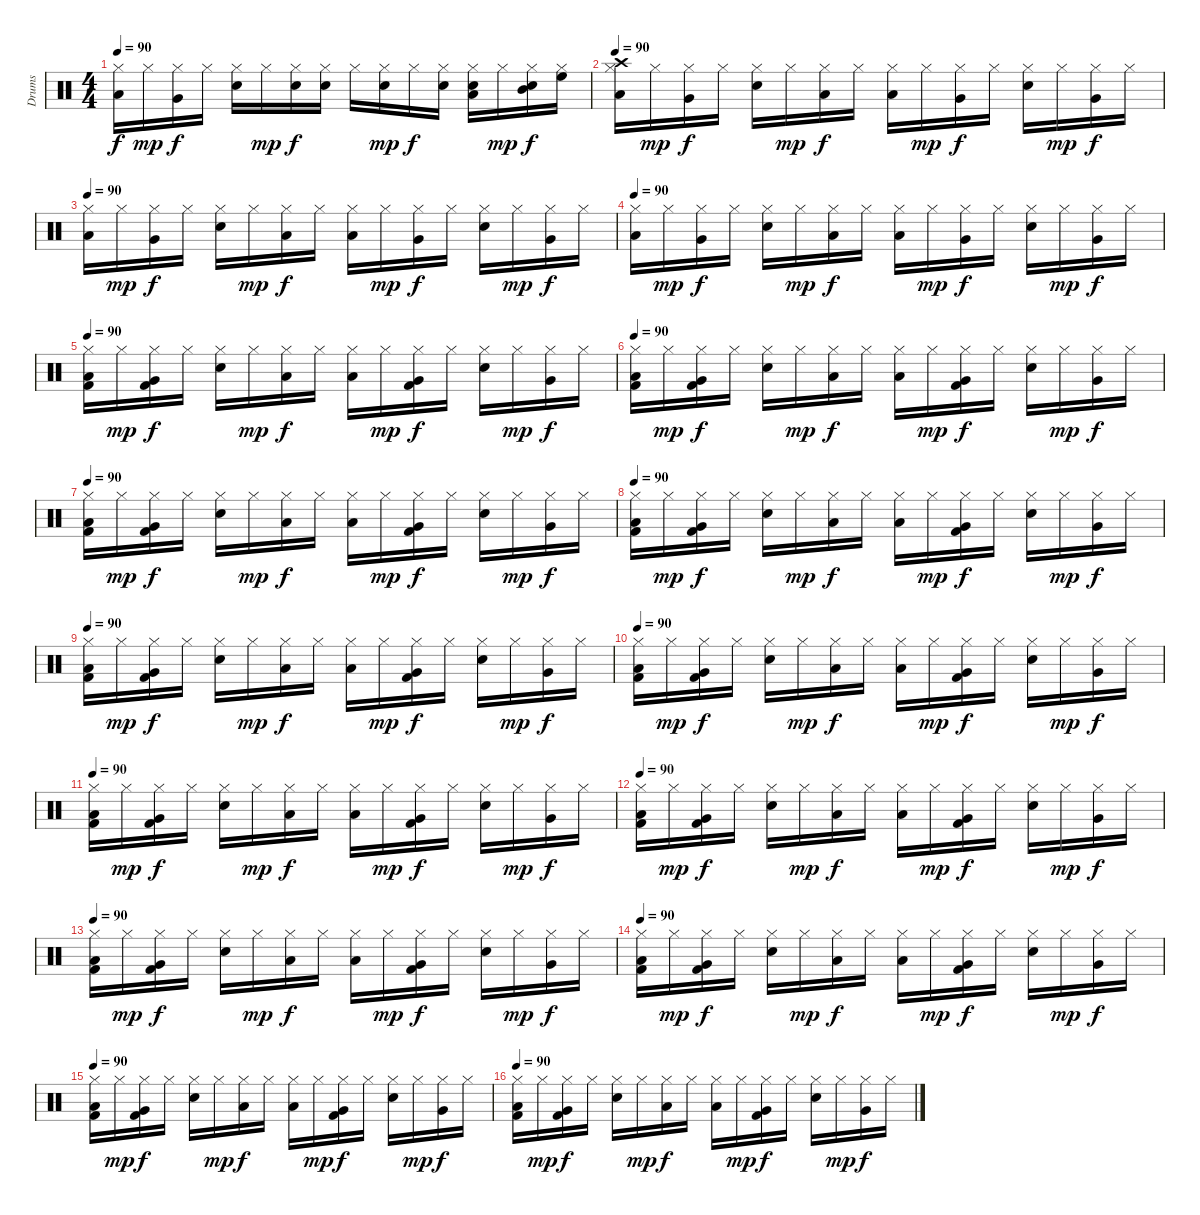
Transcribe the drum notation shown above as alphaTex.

\track ("Drums" "Drums") {instrument percussion}
\staff {score}
\articulation defaults
\ts (4 4)
\tempo 90
\clef neutral
\ks c
("Low Floor Tom (hit)" "Hi-Hat (closed)").16{dy f} "Hi-Hat (closed)".16{dy mp} ("Very Low Tom (hit)" "Hi-Hat (closed)").16{dy f} "Hi-Hat (closed)".16 ("Snare (hit) 2" "Hi-Hat (closed)").16 "Hi-Hat (closed)".16{dy mp} ("Electric Snare (hit)" "Hi-Hat (closed)").16{dy f} ("Electric Snare (hit)" "Hi-Hat (closed)").16 "Hi-Hat (closed)".16 ("Electric Snare (hit)" "Hi-Hat (closed)").16{dy mp} "Hi-Hat (closed)".16{dy f} ("Electric Snare (hit)" "Hi-Hat (closed)").16 ("Low Tom (hit)" "Electric Snare (hit)" "Hi-Hat (closed)").16 "Hi-Hat (closed)".16{dy mp} ("Mid Tom (hit)" "Electric Snare (hit)" "Hi-Hat (closed)").16{dy f} ("High Floor Tom (hit)" "Hi-Hat (closed)").16 |
\tempo 90
("Low Floor Tom (hit)" "Crash high (hit)" "Hi-Hat (closed)").16 "Hi-Hat (closed)".16{dy mp} ("Very Low Tom (hit)" "Hi-Hat (closed)").16{dy f} "Hi-Hat (closed)".16 ("Snare (hit) 2" "Hi-Hat (closed)").16 "Hi-Hat (closed)".16{dy mp} ("Low Tom (hit)" "Hi-Hat (closed)").16{dy f} "Hi-Hat (closed)".16 ("Low Tom (hit)" "Hi-Hat (closed)").16 "Hi-Hat (closed)".16{dy mp} ("Very Low Tom (hit)" "Hi-Hat (closed)").16{dy f} "Hi-Hat (closed)".16 ("Snare (hit) 2" "Hi-Hat (closed)").16 "Hi-Hat (closed)".16{dy mp} ("Very Low Tom (hit)" "Hi-Hat (closed)").16{dy f} "Hi-Hat (closed)".16 |
\tempo 90
("Low Floor Tom (hit)" "Hi-Hat (closed)").16 "Hi-Hat (closed)".16{dy mp} ("Very Low Tom (hit)" "Hi-Hat (closed)").16{dy f} "Hi-Hat (closed)".16 ("Snare (hit) 2" "Hi-Hat (closed)").16 "Hi-Hat (closed)".16{dy mp} ("Low Tom (hit)" "Hi-Hat (closed)").16{dy f} "Hi-Hat (closed)".16 ("Low Tom (hit)" "Hi-Hat (closed)").16 "Hi-Hat (closed)".16{dy mp} ("Very Low Tom (hit)" "Hi-Hat (closed)").16{dy f} "Hi-Hat (closed)".16 ("Snare (hit) 2" "Hi-Hat (closed)").16 "Hi-Hat (closed)".16{dy mp} ("Very Low Tom (hit)" "Hi-Hat (closed)").16{dy f} "Hi-Hat (closed)".16 |
\tempo 90
("Low Floor Tom (hit)" "Hi-Hat (closed)").16 "Hi-Hat (closed)".16{dy mp} ("Very Low Tom (hit)" "Hi-Hat (closed)").16{dy f} "Hi-Hat (closed)".16 ("Snare (hit) 2" "Hi-Hat (closed)").16 "Hi-Hat (closed)".16{dy mp} ("Low Tom (hit)" "Hi-Hat (closed)").16{dy f} "Hi-Hat (closed)".16 ("Low Tom (hit)" "Hi-Hat (closed)").16 "Hi-Hat (closed)".16{dy mp} ("Very Low Tom (hit)" "Hi-Hat (closed)").16{dy f} "Hi-Hat (closed)".16 ("Snare (hit) 2" "Hi-Hat (closed)").16 "Hi-Hat (closed)".16{dy mp} ("Very Low Tom (hit)" "Hi-Hat (closed)").16{dy f} "Hi-Hat (closed)".16 |
\tempo 90
("Low Floor Tom (hit)" "Kick (hit) 2" "Hi-Hat (closed)").16 "Hi-Hat (closed)".16{dy mp} ("Very Low Tom (hit)" "Kick (hit) 2" "Hi-Hat (closed)").16{dy f} "Hi-Hat (closed)".16 ("Snare (hit) 2" "Hi-Hat (closed)").16 "Hi-Hat (closed)".16{dy mp} ("Low Tom (hit)" "Hi-Hat (closed)").16{dy f} "Hi-Hat (closed)".16 ("Low Tom (hit)" "Hi-Hat (closed)").16 "Hi-Hat (closed)".16{dy mp} ("Very Low Tom (hit)" "Kick (hit) 2" "Hi-Hat (closed)").16{dy f} "Hi-Hat (closed)".16 ("Snare (hit) 2" "Hi-Hat (closed)").16 "Hi-Hat (closed)".16{dy mp} ("Very Low Tom (hit)" "Hi-Hat (closed)").16{dy f} "Hi-Hat (closed)".16 |
\tempo 90
("Low Floor Tom (hit)" "Kick (hit) 2" "Hi-Hat (closed)").16 "Hi-Hat (closed)".16{dy mp} ("Very Low Tom (hit)" "Kick (hit) 2" "Hi-Hat (closed)").16{dy f} "Hi-Hat (closed)".16 ("Snare (hit) 2" "Hi-Hat (closed)").16 "Hi-Hat (closed)".16{dy mp} ("Low Tom (hit)" "Hi-Hat (closed)").16{dy f} "Hi-Hat (closed)".16 ("Low Tom (hit)" "Hi-Hat (closed)").16 "Hi-Hat (closed)".16{dy mp} ("Very Low Tom (hit)" "Kick (hit) 2" "Hi-Hat (closed)").16{dy f} "Hi-Hat (closed)".16 ("Snare (hit) 2" "Hi-Hat (closed)").16 "Hi-Hat (closed)".16{dy mp} ("Very Low Tom (hit)" "Hi-Hat (closed)").16{dy f} "Hi-Hat (closed)".16 |
\tempo 90
("Low Floor Tom (hit)" "Kick (hit) 2" "Hi-Hat (closed)").16 "Hi-Hat (closed)".16{dy mp} ("Very Low Tom (hit)" "Kick (hit) 2" "Hi-Hat (closed)").16{dy f} "Hi-Hat (closed)".16 ("Snare (hit) 2" "Hi-Hat (closed)").16 "Hi-Hat (closed)".16{dy mp} ("Low Tom (hit)" "Hi-Hat (closed)").16{dy f} "Hi-Hat (closed)".16 ("Low Tom (hit)" "Hi-Hat (closed)").16 "Hi-Hat (closed)".16{dy mp} ("Very Low Tom (hit)" "Kick (hit) 2" "Hi-Hat (closed)").16{dy f} "Hi-Hat (closed)".16 ("Snare (hit) 2" "Hi-Hat (closed)").16 "Hi-Hat (closed)".16{dy mp} ("Very Low Tom (hit)" "Hi-Hat (closed)").16{dy f} "Hi-Hat (closed)".16 |
\tempo 90
("Low Floor Tom (hit)" "Kick (hit) 2" "Hi-Hat (closed)").16 "Hi-Hat (closed)".16{dy mp} ("Very Low Tom (hit)" "Kick (hit) 2" "Hi-Hat (closed)").16{dy f} "Hi-Hat (closed)".16 ("Snare (hit) 2" "Hi-Hat (closed)").16 "Hi-Hat (closed)".16{dy mp} ("Low Tom (hit)" "Hi-Hat (closed)").16{dy f} "Hi-Hat (closed)".16 ("Low Tom (hit)" "Hi-Hat (closed)").16 "Hi-Hat (closed)".16{dy mp} ("Very Low Tom (hit)" "Kick (hit) 2" "Hi-Hat (closed)").16{dy f} "Hi-Hat (closed)".16 ("Snare (hit) 2" "Hi-Hat (closed)").16 "Hi-Hat (closed)".16{dy mp} ("Very Low Tom (hit)" "Hi-Hat (closed)").16{dy f} "Hi-Hat (closed)".16 |
\tempo 90
("Low Floor Tom (hit)" "Kick (hit) 2" "Hi-Hat (closed)").16 "Hi-Hat (closed)".16{dy mp} ("Very Low Tom (hit)" "Kick (hit) 2" "Hi-Hat (closed)").16{dy f} "Hi-Hat (closed)".16 ("Snare (hit) 2" "Hi-Hat (closed)").16 "Hi-Hat (closed)".16{dy mp} ("Low Tom (hit)" "Hi-Hat (closed)").16{dy f} "Hi-Hat (closed)".16 ("Low Tom (hit)" "Hi-Hat (closed)").16 "Hi-Hat (closed)".16{dy mp} ("Very Low Tom (hit)" "Kick (hit) 2" "Hi-Hat (closed)").16{dy f} "Hi-Hat (closed)".16 ("Snare (hit) 2" "Hi-Hat (closed)").16 "Hi-Hat (closed)".16{dy mp} ("Very Low Tom (hit)" "Hi-Hat (closed)").16{dy f} "Hi-Hat (closed)".16 |
\tempo 90
("Low Floor Tom (hit)" "Kick (hit) 2" "Hi-Hat (closed)").16 "Hi-Hat (closed)".16{dy mp} ("Very Low Tom (hit)" "Kick (hit) 2" "Hi-Hat (closed)").16{dy f} "Hi-Hat (closed)".16 ("Snare (hit) 2" "Hi-Hat (closed)").16 "Hi-Hat (closed)".16{dy mp} ("Low Tom (hit)" "Hi-Hat (closed)").16{dy f} "Hi-Hat (closed)".16 ("Low Tom (hit)" "Hi-Hat (closed)").16 "Hi-Hat (closed)".16{dy mp} ("Very Low Tom (hit)" "Kick (hit) 2" "Hi-Hat (closed)").16{dy f} "Hi-Hat (closed)".16 ("Snare (hit) 2" "Hi-Hat (closed)").16 "Hi-Hat (closed)".16{dy mp} ("Very Low Tom (hit)" "Hi-Hat (closed)").16{dy f} "Hi-Hat (closed)".16 |
\tempo 90
("Low Floor Tom (hit)" "Kick (hit) 2" "Hi-Hat (closed)").16 "Hi-Hat (closed)".16{dy mp} ("Very Low Tom (hit)" "Kick (hit) 2" "Hi-Hat (closed)").16{dy f} "Hi-Hat (closed)".16 ("Snare (hit) 2" "Hi-Hat (closed)").16 "Hi-Hat (closed)".16{dy mp} ("Low Tom (hit)" "Hi-Hat (closed)").16{dy f} "Hi-Hat (closed)".16 ("Low Tom (hit)" "Hi-Hat (closed)").16 "Hi-Hat (closed)".16{dy mp} ("Very Low Tom (hit)" "Kick (hit) 2" "Hi-Hat (closed)").16{dy f} "Hi-Hat (closed)".16 ("Snare (hit) 2" "Hi-Hat (closed)").16 "Hi-Hat (closed)".16{dy mp} ("Very Low Tom (hit)" "Hi-Hat (closed)").16{dy f} "Hi-Hat (closed)".16 |
\tempo 90
("Low Floor Tom (hit)" "Kick (hit) 2" "Hi-Hat (closed)").16 "Hi-Hat (closed)".16{dy mp} ("Very Low Tom (hit)" "Kick (hit) 2" "Hi-Hat (closed)").16{dy f} "Hi-Hat (closed)".16 ("Snare (hit) 2" "Hi-Hat (closed)").16 "Hi-Hat (closed)".16{dy mp} ("Low Tom (hit)" "Hi-Hat (closed)").16{dy f} "Hi-Hat (closed)".16 ("Low Tom (hit)" "Hi-Hat (closed)").16 "Hi-Hat (closed)".16{dy mp} ("Very Low Tom (hit)" "Kick (hit) 2" "Hi-Hat (closed)").16{dy f} "Hi-Hat (closed)".16 ("Snare (hit) 2" "Hi-Hat (closed)").16 "Hi-Hat (closed)".16{dy mp} ("Very Low Tom (hit)" "Hi-Hat (closed)").16{dy f} "Hi-Hat (closed)".16 |
\tempo 90
("Low Floor Tom (hit)" "Kick (hit) 2" "Hi-Hat (closed)").16 "Hi-Hat (closed)".16{dy mp} ("Very Low Tom (hit)" "Kick (hit) 2" "Hi-Hat (closed)").16{dy f} "Hi-Hat (closed)".16 ("Snare (hit) 2" "Hi-Hat (closed)").16 "Hi-Hat (closed)".16{dy mp} ("Low Tom (hit)" "Hi-Hat (closed)").16{dy f} "Hi-Hat (closed)".16 ("Low Tom (hit)" "Hi-Hat (closed)").16 "Hi-Hat (closed)".16{dy mp} ("Very Low Tom (hit)" "Kick (hit) 2" "Hi-Hat (closed)").16{dy f} "Hi-Hat (closed)".16 ("Snare (hit) 2" "Hi-Hat (closed)").16 "Hi-Hat (closed)".16{dy mp} ("Very Low Tom (hit)" "Hi-Hat (closed)").16{dy f} "Hi-Hat (closed)".16 |
\tempo 90
("Low Floor Tom (hit)" "Kick (hit) 2" "Hi-Hat (closed)").16 "Hi-Hat (closed)".16{dy mp} ("Very Low Tom (hit)" "Kick (hit) 2" "Hi-Hat (closed)").16{dy f} "Hi-Hat (closed)".16 ("Snare (hit) 2" "Hi-Hat (closed)").16 "Hi-Hat (closed)".16{dy mp} ("Low Tom (hit)" "Hi-Hat (closed)").16{dy f} "Hi-Hat (closed)".16 ("Low Tom (hit)" "Hi-Hat (closed)").16 "Hi-Hat (closed)".16{dy mp} ("Very Low Tom (hit)" "Kick (hit) 2" "Hi-Hat (closed)").16{dy f} "Hi-Hat (closed)".16 ("Snare (hit) 2" "Hi-Hat (closed)").16 "Hi-Hat (closed)".16{dy mp} ("Very Low Tom (hit)" "Hi-Hat (closed)").16{dy f} "Hi-Hat (closed)".16 |
\tempo 90
("Low Floor Tom (hit)" "Kick (hit) 2" "Hi-Hat (closed)").16 "Hi-Hat (closed)".16{dy mp} ("Very Low Tom (hit)" "Kick (hit) 2" "Hi-Hat (closed)").16{dy f} "Hi-Hat (closed)".16 ("Snare (hit) 2" "Hi-Hat (closed)").16 "Hi-Hat (closed)".16{dy mp} ("Low Tom (hit)" "Hi-Hat (closed)").16{dy f} "Hi-Hat (closed)".16 ("Low Tom (hit)" "Hi-Hat (closed)").16 "Hi-Hat (closed)".16{dy mp} ("Very Low Tom (hit)" "Kick (hit) 2" "Hi-Hat (closed)").16{dy f} "Hi-Hat (closed)".16 ("Snare (hit) 2" "Hi-Hat (closed)").16 "Hi-Hat (closed)".16{dy mp} ("Very Low Tom (hit)" "Hi-Hat (closed)").16{dy f} "Hi-Hat (closed)".16 |
\tempo 90
("Low Floor Tom (hit)" "Kick (hit) 2" "Hi-Hat (closed)").16 "Hi-Hat (closed)".16{dy mp} ("Very Low Tom (hit)" "Kick (hit) 2" "Hi-Hat (closed)").16{dy f} "Hi-Hat (closed)".16 ("Snare (hit) 2" "Hi-Hat (closed)").16 "Hi-Hat (closed)".16{dy mp} ("Low Tom (hit)" "Hi-Hat (closed)").16{dy f} "Hi-Hat (closed)".16 ("Low Tom (hit)" "Hi-Hat (closed)").16 "Hi-Hat (closed)".16{dy mp} ("Very Low Tom (hit)" "Kick (hit) 2" "Hi-Hat (closed)").16{dy f} "Hi-Hat (closed)".16 ("Snare (hit) 2" "Hi-Hat (closed)").16 "Hi-Hat (closed)".16{dy mp} ("Very Low Tom (hit)" "Hi-Hat (closed)").16{dy f} "Hi-Hat (closed)".16
